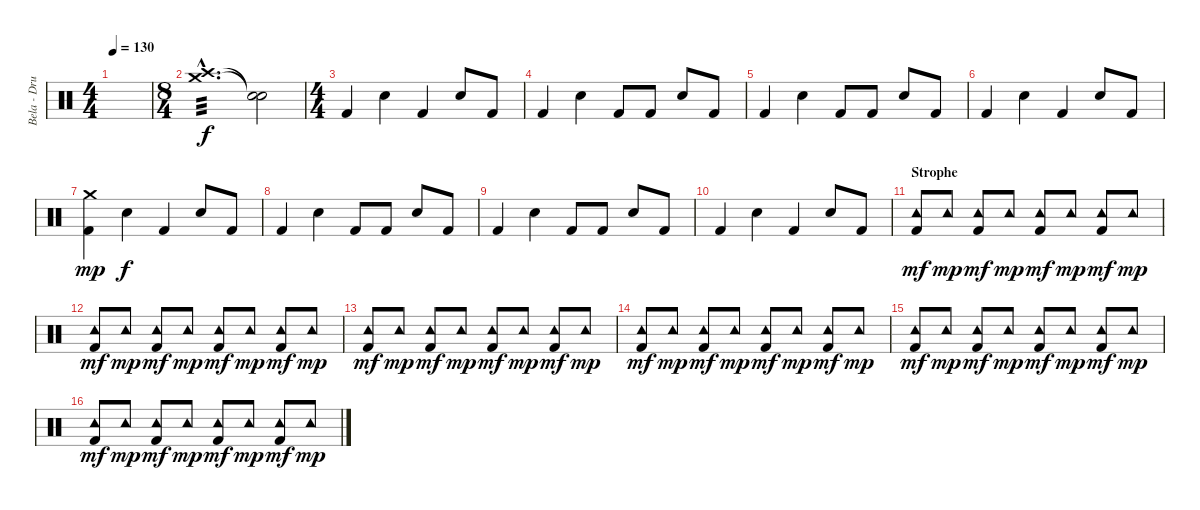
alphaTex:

\track ("Bela - Drums" "Bela - Dru") {instrument percussion}
\staff {score}
\articulation defaults
\ts (4 4)
\tempo 130
\clef neutral
\ks c
|
\ts (8 4)
("Crash medium (hit)"{hac} "Crash high (hit)"{hac}).1{d tp 3 volume 16} ("Snare (hit)"{t} "Snare (hit)"{t}).2 |
\ts (4 4)
"Kick (hit) 2".4 "Snare (hit) 2".4 "Kick (hit) 2".4 "Snare (hit) 2".8 "Kick (hit) 2".8 |
"Kick (hit) 2".4 "Snare (hit) 2".4 "Kick (hit) 2".8 "Kick (hit) 2".8 "Snare (hit) 2".8 "Kick (hit) 2".8 |
"Kick (hit) 2".4 "Snare (hit) 2".4 "Kick (hit) 2".8 "Kick (hit) 2".8 "Snare (hit) 2".8 "Kick (hit) 2".8 |
"Kick (hit) 2".4 "Snare (hit) 2".4 "Kick (hit) 2".4 "Snare (hit) 2".8 "Kick (hit) 2".8 |
("Crash medium (hit)" "Kick (hit) 2").4{dy mp} "Snare (hit) 2".4{dy f} "Kick (hit) 2".4 "Snare (hit) 2".8 "Kick (hit) 2".8 |
"Kick (hit) 2".4 "Snare (hit) 2".4 "Kick (hit) 2".8 "Kick (hit) 2".8 "Snare (hit) 2".8 "Kick (hit) 2".8 |
"Kick (hit) 2".4 "Snare (hit) 2".4 "Kick (hit) 2".8 "Kick (hit) 2".8 "Snare (hit) 2".8 "Kick (hit) 2".8 |
"Kick (hit) 2".4 "Snare (hit) 2".4 "Kick (hit) 2".4 "Snare (hit) 2".8 "Kick (hit) 2".8 |
\section ("" "Strophe")
("Tambourine (hit)" "Kick (hit) 2").8{dy mf} "Tambourine (hit)".8{dy mp} ("Tambourine (hit)" "Kick (hit) 2").8{dy mf} "Tambourine (hit)".8{dy mp} ("Tambourine (hit)" "Kick (hit) 2").8{dy mf} "Tambourine (hit)".8{dy mp} ("Tambourine (hit)" "Kick (hit) 2").8{dy mf} "Tambourine (hit)".8{dy mp} |
("Tambourine (hit)" "Kick (hit) 2").8{dy mf} "Tambourine (hit)".8{dy mp} ("Tambourine (hit)" "Kick (hit) 2").8{dy mf} "Tambourine (hit)".8{dy mp} ("Tambourine (hit)" "Kick (hit) 2").8{dy mf} "Tambourine (hit)".8{dy mp} ("Tambourine (hit)" "Kick (hit) 2").8{dy mf} "Tambourine (hit)".8{dy mp} |
("Tambourine (hit)" "Kick (hit) 2").8{dy mf} "Tambourine (hit)".8{dy mp} ("Tambourine (hit)" "Kick (hit) 2").8{dy mf} "Tambourine (hit)".8{dy mp} ("Tambourine (hit)" "Kick (hit) 2").8{dy mf} "Tambourine (hit)".8{dy mp} ("Tambourine (hit)" "Kick (hit) 2").8{dy mf} "Tambourine (hit)".8{dy mp} |
("Tambourine (hit)" "Kick (hit) 2").8{dy mf} "Tambourine (hit)".8{dy mp} ("Tambourine (hit)" "Kick (hit) 2").8{dy mf} "Tambourine (hit)".8{dy mp} ("Tambourine (hit)" "Kick (hit) 2").8{dy mf} "Tambourine (hit)".8{dy mp} ("Tambourine (hit)" "Kick (hit) 2").8{dy mf} "Tambourine (hit)".8{dy mp} |
("Tambourine (hit)" "Kick (hit) 2").8{dy mf} "Tambourine (hit)".8{dy mp} ("Tambourine (hit)" "Kick (hit) 2").8{dy mf} "Tambourine (hit)".8{dy mp} ("Tambourine (hit)" "Kick (hit) 2").8{dy mf} "Tambourine (hit)".8{dy mp} ("Tambourine (hit)" "Kick (hit) 2").8{dy mf} "Tambourine (hit)".8{dy mp} |
("Tambourine (hit)" "Kick (hit) 2").8{dy mf} "Tambourine (hit)".8{dy mp} ("Tambourine (hit)" "Kick (hit) 2").8{dy mf} "Tambourine (hit)".8{dy mp} ("Tambourine (hit)" "Kick (hit) 2").8{dy mf} "Tambourine (hit)".8{dy mp} ("Tambourine (hit)" "Kick (hit) 2").8{dy mf} "Tambourine (hit)".8{dy mp}
